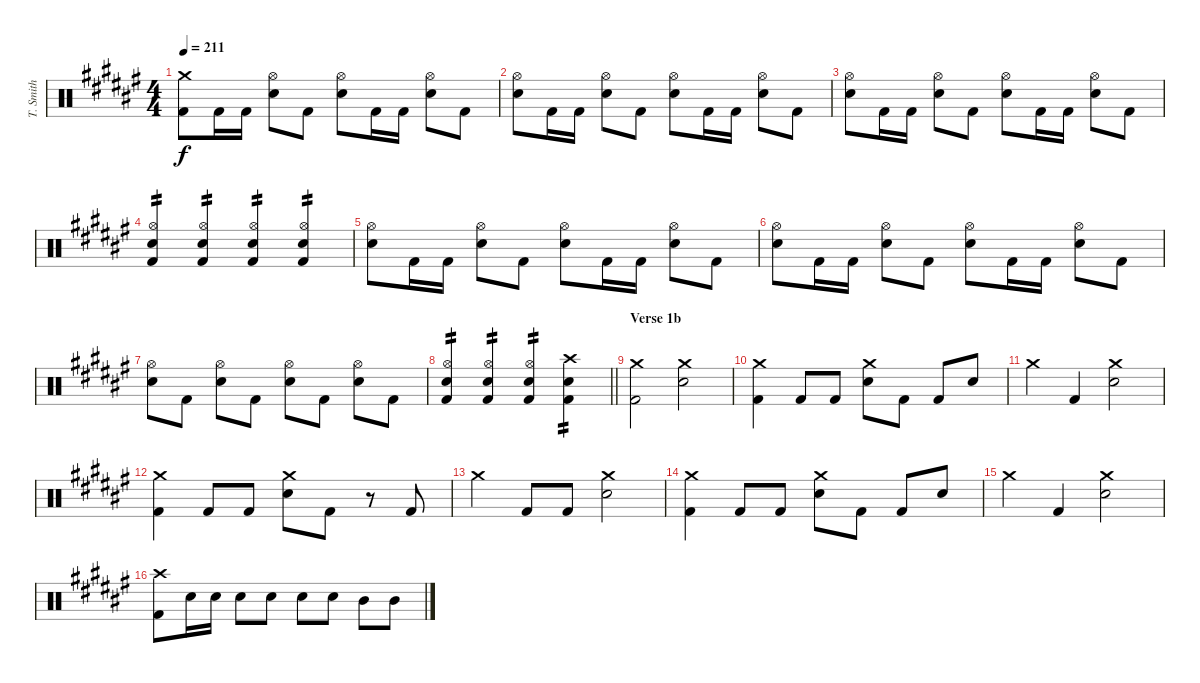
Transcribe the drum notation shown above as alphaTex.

\track ("T. Smith" "T. Smith") {instrument percussion}
\staff {score}
\articulation defaults
\ts (4 4)
\tempo 211
\clef neutral
\ks d#minor
("Crash medium (hit)" "Kick (hit) 2").8{dy f} "Kick (hit) 2".16 "Kick (hit) 2".16 ("Hi-Hat (open)" "Electric Snare (hit)").8 "Kick (hit) 2".8 ("Hi-Hat (open)" "Electric Snare (hit)").8 "Kick (hit) 2".16 "Kick (hit) 2".16 ("Hi-Hat (open)" "Electric Snare (hit)").8 "Kick (hit) 2".8 |
("Hi-Hat (open)" "Electric Snare (hit)").8 "Kick (hit) 2".16 "Kick (hit) 2".16 ("Hi-Hat (open)" "Electric Snare (hit)").8 "Kick (hit) 2".8 ("Hi-Hat (open)" "Electric Snare (hit)").8 "Kick (hit) 2".16 "Kick (hit) 2".16 ("Hi-Hat (open)" "Electric Snare (hit)").8 "Kick (hit) 2".8 |
("Hi-Hat (open)" "Electric Snare (hit)").8 "Kick (hit) 2".16 "Kick (hit) 2".16 ("Hi-Hat (open)" "Electric Snare (hit)").8 "Kick (hit) 2".8 ("Hi-Hat (open)" "Electric Snare (hit)").8 "Kick (hit) 2".16 "Kick (hit) 2".16 ("Hi-Hat (open)" "Electric Snare (hit)").8 "Kick (hit) 2".8 |
("Hi-Hat (open)" "Electric Snare (hit)" "Kick (hit) 2").4{tp 2} ("Hi-Hat (open)" "Electric Snare (hit)" "Kick (hit) 2").4{tp 2} ("Hi-Hat (open)" "Electric Snare (hit)" "Kick (hit) 2").4{tp 2} ("Hi-Hat (open)" "Electric Snare (hit)" "Kick (hit) 2").4{tp 2} |
("Hi-Hat (open)" "Electric Snare (hit)").8 "Kick (hit) 2".16 "Kick (hit) 2".16 ("Hi-Hat (open)" "Electric Snare (hit)").8 "Kick (hit) 2".8 ("Hi-Hat (open)" "Electric Snare (hit)").8 "Kick (hit) 2".16 "Kick (hit) 2".16 ("Hi-Hat (open)" "Electric Snare (hit)").8 "Kick (hit) 2".8 |
("Hi-Hat (open)" "Electric Snare (hit)").8 "Kick (hit) 2".16 "Kick (hit) 2".16 ("Hi-Hat (open)" "Electric Snare (hit)").8 "Kick (hit) 2".8 ("Hi-Hat (open)" "Electric Snare (hit)").8 "Kick (hit) 2".16 "Kick (hit) 2".16 ("Hi-Hat (open)" "Electric Snare (hit)").8 "Kick (hit) 2".8 |
("Hi-Hat (open)" "Electric Snare (hit)").8 "Kick (hit) 2".8 ("Hi-Hat (open)" "Electric Snare (hit)").8 "Kick (hit) 2".8 ("Hi-Hat (open)" "Electric Snare (hit)").8 "Kick (hit) 2".8 ("Hi-Hat (open)" "Electric Snare (hit)").8 "Kick (hit) 2".8 |
\barLineRight lightlight
("Hi-Hat (open)" "Electric Snare (hit)" "Kick (hit) 2").4{tp 2} ("Hi-Hat (open)" "Electric Snare (hit)" "Kick (hit) 2").4{tp 2} ("Hi-Hat (open)" "Electric Snare (hit)" "Kick (hit) 2").4{tp 2} ("Crash high (hit)" "Electric Snare (hit)" "Kick (hit) 2").4{tp 2} |
\section ("" "Verse 1b")
("Crash medium (hit)" "Kick (hit) 2").2 ("Crash medium (hit)" "Electric Snare (hit)").2 |
("Crash medium (hit)" "Kick (hit) 2").4 "Kick (hit) 2".8 "Kick (hit) 2".8 ("Crash medium (hit)" "Electric Snare (hit)").8 "Kick (hit) 2".8 "Kick (hit) 2".8 "Electric Snare (hit)".8 |
"Crash medium (hit)".4 "Kick (hit) 2".4 ("Crash medium (hit)" "Electric Snare (hit)").2 |
("Crash medium (hit)" "Kick (hit) 2").4 "Kick (hit) 2".8 "Kick (hit) 2".8 ("Crash medium (hit)" "Electric Snare (hit)").8 "Kick (hit) 2".8 r.8 "Kick (hit) 2".8 |
"Crash medium (hit)".4 "Kick (hit) 2".8 "Kick (hit) 2".8 ("Crash medium (hit)" "Electric Snare (hit)").2 |
("Crash medium (hit)" "Kick (hit) 2").4 "Kick (hit) 2".8 "Kick (hit) 2".8 ("Crash medium (hit)" "Electric Snare (hit)").8 "Kick (hit) 2".8 "Kick (hit) 2".8 "Electric Snare (hit)".8 |
"Crash medium (hit)".4 "Kick (hit) 2".4 ("Crash medium (hit)" "Electric Snare (hit)").2 |
("Crash high (hit)" "Kick (hit) 2").8 "Electric Snare (hit)".16 "Electric Snare (hit)".16 "Electric Snare (hit)".8 "Electric Snare (hit)".8 "Electric Snare (hit)".8 "Electric Snare (hit)".8 "Mid Tom (hit)".8 "Mid Tom (hit)".8
